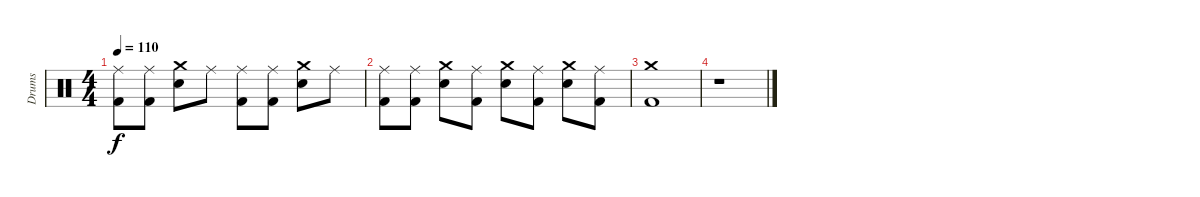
\track ("Drums" "Drums") {instrument percussion}
\staff {score}
\articulation defaults
\ts (4 4)
\tempo 110
\clef neutral
\ks c
("Ride (middle)" "Kick (hit) 2").8{dy f} ("Ride (middle)" "Kick (hit) 2").8 ("Crash medium (hit)" "Electric Snare (hit)").8 "Ride (middle)".8 ("Ride (middle)" "Kick (hit) 2").8 ("Ride (middle)" "Kick (hit) 2").8 ("Crash medium (hit)" "Electric Snare (hit)").8 "Ride (middle)".8 |
("Ride (middle)" "Kick (hit) 2").8 ("Ride (middle)" "Kick (hit) 2").8 ("Crash medium (hit)" "Electric Snare (hit)").8 ("Ride (middle)" "Kick (hit) 2").8 ("Crash medium (hit)" "Electric Snare (hit)").8 ("Ride (middle)" "Kick (hit) 2").8 ("Crash medium (hit)" "Electric Snare (hit)").8 ("Ride (middle)" "Kick (hit) 2").8 |
("Crash medium (hit)" "Kick (hit) 2").1 |
r.1
